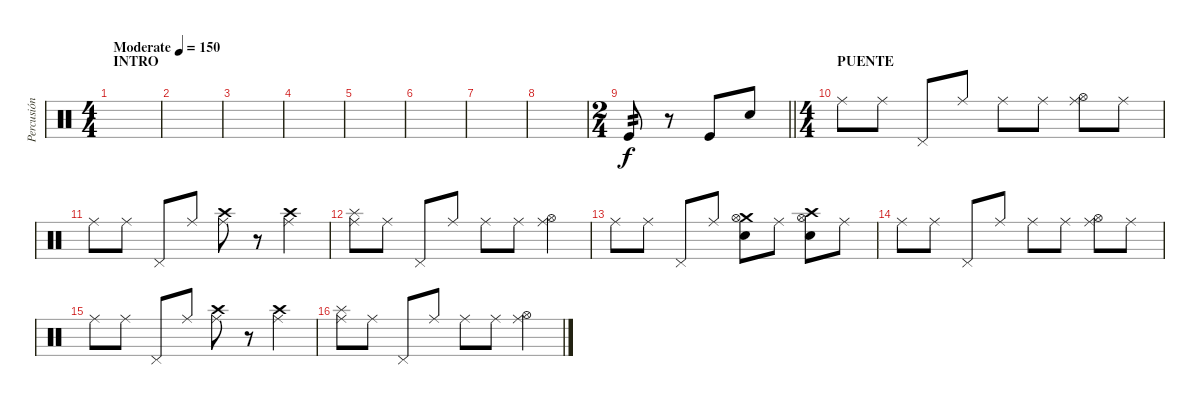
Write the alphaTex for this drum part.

\track ("Percusión" "Percusión") {instrument percussion}
\staff {score}
\articulation defaults
\ts (4 4)
\section ("" "INTRO")
\tempo (150 "Moderate")
\clef neutral
\ks c
|
|
|
|
|
|
|
|
\ts (2 4)
\barLineRight lightlight "Kick (hit)".8{tp 2}
r.8 "Kick (hit)".8 "Snare (hit) 2".8 |
\ts (4 4)
\section ("" "PUENTE")
"Ride (middle)".8 "Ride (middle)".8 "Pedal Hi-Hat (hit)".8 "Ride (middle)".8 "Ride (middle)".8 "Ride (middle)".8 ("Hi-Hat (open)" "Ride (middle)").8 "Ride (middle)".8 |
"Ride (middle)".8 "Ride (middle)".8 "Pedal Hi-Hat (hit)".8 "Ride (middle)".8 ("Crash high (hit)" "Ride (middle)").8 r.8 ("Crash high (hit)" "Ride (middle)").4 |
("Splash (hit)" "Ride (middle)").8 "Ride (middle)".8 "Pedal Hi-Hat (hit)".8 "Ride (middle)".8 "Ride (middle)".8 "Ride (middle)".8 ("Hi-Hat (open)" "Ride (middle)").4 |
"Ride (middle)".8 "Ride (middle)".8 "Pedal Hi-Hat (hit)".8 "Ride (middle)".8 ("Snare (hit) 2" "Crash medium (hit)" "Hi-Hat (open)").8 "Ride (middle)".8 ("Snare (hit) 2" "Crash high (hit)" "Hi-Hat (open)").8 "Ride (middle)".8 |
"Ride (middle)".8 "Ride (middle)".8 "Pedal Hi-Hat (hit)".8 "Ride (middle)".8 "Ride (middle)".8 "Ride (middle)".8 ("Hi-Hat (open)" "Ride (middle)").8 "Ride (middle)".8 |
"Ride (middle)".8 "Ride (middle)".8 "Pedal Hi-Hat (hit)".8 "Ride (middle)".8 ("Crash high (hit)" "Ride (middle)").8 r.8 ("Crash high (hit)" "Ride (middle)").4 |
("Splash (hit)" "Ride (middle)").8 "Ride (middle)".8 "Pedal Hi-Hat (hit)".8 "Ride (middle)".8 "Ride (middle)".8 "Ride (middle)".8 ("Hi-Hat (open)" "Ride (middle)").4
